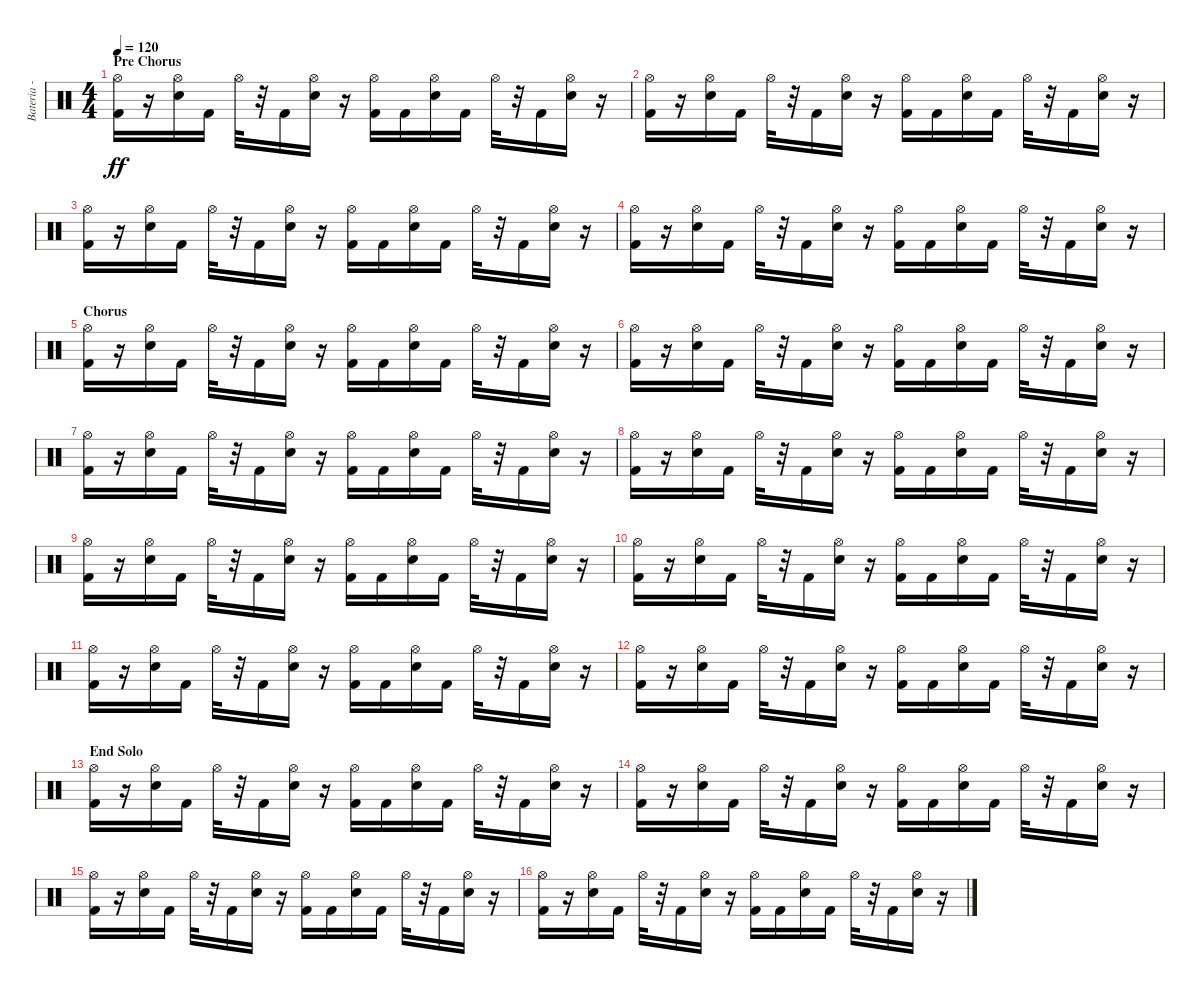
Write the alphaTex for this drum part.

\track ("Bateria - Marky" "Bateria - ") {instrument percussion}
\staff {score}
\articulation defaults
\ts (4 4)
\section ("" "Pre Chorus")
\tempo 120
\clef neutral
\ks c
("Kick (hit) 2" "Hi-Hat (open)").16{dy ff} r.16 ("Electric Snare (hit)" "Hi-Hat (open)").16 "Kick (hit) 2".16 "Hi-Hat (open)".32 r.32 "Kick (hit) 2".16 ("Electric Snare (hit)" "Hi-Hat (open)").16 r.16 ("Kick (hit) 2" "Hi-Hat (open)").16 "Kick (hit) 2".16 ("Electric Snare (hit)" "Hi-Hat (open)").16 "Kick (hit) 2".16 "Hi-Hat (open)".32 r.32 "Kick (hit) 2".16 ("Electric Snare (hit)" "Hi-Hat (open)").16 r.16 |
("Kick (hit) 2" "Hi-Hat (open)").16 r.16 ("Electric Snare (hit)" "Hi-Hat (open)").16 "Kick (hit) 2".16 "Hi-Hat (open)".32 r.32 "Kick (hit) 2".16 ("Electric Snare (hit)" "Hi-Hat (open)").16 r.16 ("Kick (hit) 2" "Hi-Hat (open)").16 "Kick (hit) 2".16 ("Electric Snare (hit)" "Hi-Hat (open)").16 "Kick (hit) 2".16 "Hi-Hat (open)".32 r.32 "Kick (hit) 2".16 ("Electric Snare (hit)" "Hi-Hat (open)").16 r.16 |
("Kick (hit) 2" "Hi-Hat (open)").16 r.16 ("Electric Snare (hit)" "Hi-Hat (open)").16 "Kick (hit) 2".16 "Hi-Hat (open)".32 r.32 "Kick (hit) 2".16 ("Electric Snare (hit)" "Hi-Hat (open)").16 r.16 ("Kick (hit) 2" "Hi-Hat (open)").16 "Kick (hit) 2".16 ("Electric Snare (hit)" "Hi-Hat (open)").16 "Kick (hit) 2".16 "Hi-Hat (open)".32 r.32 "Kick (hit) 2".16 ("Electric Snare (hit)" "Hi-Hat (open)").16 r.16 |
("Kick (hit) 2" "Hi-Hat (open)").16 r.16 ("Electric Snare (hit)" "Hi-Hat (open)").16 "Kick (hit) 2".16 "Hi-Hat (open)".32 r.32 "Kick (hit) 2".16 ("Electric Snare (hit)" "Hi-Hat (open)").16 r.16 ("Kick (hit) 2" "Hi-Hat (open)").16 "Kick (hit) 2".16 ("Electric Snare (hit)" "Hi-Hat (open)").16 "Kick (hit) 2".16 "Hi-Hat (open)".32 r.32 "Kick (hit) 2".16 ("Electric Snare (hit)" "Hi-Hat (open)").16 r.16 |
\section ("" "Chorus")
("Kick (hit) 2" "Hi-Hat (open)").16 r.16 ("Electric Snare (hit)" "Hi-Hat (open)").16 "Kick (hit) 2".16 "Hi-Hat (open)".32 r.32 "Kick (hit) 2".16 ("Electric Snare (hit)" "Hi-Hat (open)").16 r.16 ("Kick (hit) 2" "Hi-Hat (open)").16 "Kick (hit) 2".16 ("Electric Snare (hit)" "Hi-Hat (open)").16 "Kick (hit) 2".16 "Hi-Hat (open)".32 r.32 "Kick (hit) 2".16 ("Electric Snare (hit)" "Hi-Hat (open)").16 r.16 |
("Kick (hit) 2" "Hi-Hat (open)").16 r.16 ("Electric Snare (hit)" "Hi-Hat (open)").16 "Kick (hit) 2".16 "Hi-Hat (open)".32 r.32 "Kick (hit) 2".16 ("Electric Snare (hit)" "Hi-Hat (open)").16 r.16 ("Kick (hit) 2" "Hi-Hat (open)").16 "Kick (hit) 2".16 ("Electric Snare (hit)" "Hi-Hat (open)").16 "Kick (hit) 2".16 "Hi-Hat (open)".32 r.32 "Kick (hit) 2".16 ("Electric Snare (hit)" "Hi-Hat (open)").16 r.16 |
("Kick (hit) 2" "Hi-Hat (open)").16 r.16 ("Electric Snare (hit)" "Hi-Hat (open)").16 "Kick (hit) 2".16 "Hi-Hat (open)".32 r.32 "Kick (hit) 2".16 ("Electric Snare (hit)" "Hi-Hat (open)").16 r.16 ("Kick (hit) 2" "Hi-Hat (open)").16 "Kick (hit) 2".16 ("Electric Snare (hit)" "Hi-Hat (open)").16 "Kick (hit) 2".16 "Hi-Hat (open)".32 r.32 "Kick (hit) 2".16 ("Electric Snare (hit)" "Hi-Hat (open)").16 r.16 |
("Kick (hit) 2" "Hi-Hat (open)").16 r.16 ("Electric Snare (hit)" "Hi-Hat (open)").16 "Kick (hit) 2".16 "Hi-Hat (open)".32 r.32 "Kick (hit) 2".16 ("Electric Snare (hit)" "Hi-Hat (open)").16 r.16 ("Kick (hit) 2" "Hi-Hat (open)").16 "Kick (hit) 2".16 ("Electric Snare (hit)" "Hi-Hat (open)").16 "Kick (hit) 2".16 "Hi-Hat (open)".32 r.32 "Kick (hit) 2".16 ("Electric Snare (hit)" "Hi-Hat (open)").16 r.16 |
("Kick (hit) 2" "Hi-Hat (open)").16 r.16 ("Electric Snare (hit)" "Hi-Hat (open)").16 "Kick (hit) 2".16 "Hi-Hat (open)".32 r.32 "Kick (hit) 2".16 ("Electric Snare (hit)" "Hi-Hat (open)").16 r.16 ("Kick (hit) 2" "Hi-Hat (open)").16 "Kick (hit) 2".16 ("Electric Snare (hit)" "Hi-Hat (open)").16 "Kick (hit) 2".16 "Hi-Hat (open)".32 r.32 "Kick (hit) 2".16 ("Electric Snare (hit)" "Hi-Hat (open)").16 r.16 |
("Kick (hit) 2" "Hi-Hat (open)").16 r.16 ("Electric Snare (hit)" "Hi-Hat (open)").16 "Kick (hit) 2".16 "Hi-Hat (open)".32 r.32 "Kick (hit) 2".16 ("Electric Snare (hit)" "Hi-Hat (open)").16 r.16 ("Kick (hit) 2" "Hi-Hat (open)").16 "Kick (hit) 2".16 ("Electric Snare (hit)" "Hi-Hat (open)").16 "Kick (hit) 2".16 "Hi-Hat (open)".32 r.32 "Kick (hit) 2".16 ("Electric Snare (hit)" "Hi-Hat (open)").16 r.16 |
("Kick (hit) 2" "Hi-Hat (open)").16 r.16 ("Electric Snare (hit)" "Hi-Hat (open)").16 "Kick (hit) 2".16 "Hi-Hat (open)".32 r.32 "Kick (hit) 2".16 ("Electric Snare (hit)" "Hi-Hat (open)").16 r.16 ("Kick (hit) 2" "Hi-Hat (open)").16 "Kick (hit) 2".16 ("Electric Snare (hit)" "Hi-Hat (open)").16 "Kick (hit) 2".16 "Hi-Hat (open)".32 r.32 "Kick (hit) 2".16 ("Electric Snare (hit)" "Hi-Hat (open)").16 r.16 |
("Kick (hit) 2" "Hi-Hat (open)").16 r.16 ("Electric Snare (hit)" "Hi-Hat (open)").16 "Kick (hit) 2".16 "Hi-Hat (open)".32 r.32 "Kick (hit) 2".16 ("Electric Snare (hit)" "Hi-Hat (open)").16 r.16 ("Kick (hit) 2" "Hi-Hat (open)").16 "Kick (hit) 2".16 ("Electric Snare (hit)" "Hi-Hat (open)").16 "Kick (hit) 2".16 "Hi-Hat (open)".32 r.32 "Kick (hit) 2".16 ("Electric Snare (hit)" "Hi-Hat (open)").16 r.16 |
\section ("" "End Solo")
("Kick (hit) 2" "Hi-Hat (open)").16 r.16 ("Electric Snare (hit)" "Hi-Hat (open)").16 "Kick (hit) 2".16 "Hi-Hat (open)".32 r.32 "Kick (hit) 2".16 ("Electric Snare (hit)" "Hi-Hat (open)").16 r.16 ("Kick (hit) 2" "Hi-Hat (open)").16 "Kick (hit) 2".16 ("Electric Snare (hit)" "Hi-Hat (open)").16 "Kick (hit) 2".16 "Hi-Hat (open)".32 r.32 "Kick (hit) 2".16 ("Electric Snare (hit)" "Hi-Hat (open)").16 r.16 |
("Kick (hit) 2" "Hi-Hat (open)").16 r.16 ("Electric Snare (hit)" "Hi-Hat (open)").16 "Kick (hit) 2".16 "Hi-Hat (open)".32 r.32 "Kick (hit) 2".16 ("Electric Snare (hit)" "Hi-Hat (open)").16 r.16 ("Kick (hit) 2" "Hi-Hat (open)").16 "Kick (hit) 2".16 ("Electric Snare (hit)" "Hi-Hat (open)").16 "Kick (hit) 2".16 "Hi-Hat (open)".32 r.32 "Kick (hit) 2".16 ("Electric Snare (hit)" "Hi-Hat (open)").16 r.16 |
("Kick (hit) 2" "Hi-Hat (open)").16 r.16 ("Electric Snare (hit)" "Hi-Hat (open)").16 "Kick (hit) 2".16 "Hi-Hat (open)".32 r.32 "Kick (hit) 2".16 ("Electric Snare (hit)" "Hi-Hat (open)").16 r.16 ("Kick (hit) 2" "Hi-Hat (open)").16 "Kick (hit) 2".16 ("Electric Snare (hit)" "Hi-Hat (open)").16 "Kick (hit) 2".16 "Hi-Hat (open)".32 r.32 "Kick (hit) 2".16 ("Electric Snare (hit)" "Hi-Hat (open)").16 r.16 |
("Kick (hit) 2" "Hi-Hat (open)").16 r.16 ("Electric Snare (hit)" "Hi-Hat (open)").16 "Kick (hit) 2".16 "Hi-Hat (open)".32 r.32 "Kick (hit) 2".16 ("Electric Snare (hit)" "Hi-Hat (open)").16 r.16 ("Kick (hit) 2" "Hi-Hat (open)").16 "Kick (hit) 2".16 ("Electric Snare (hit)" "Hi-Hat (open)").16 "Kick (hit) 2".16 "Hi-Hat (open)".32 r.32 "Kick (hit) 2".16 ("Electric Snare (hit)" "Hi-Hat (open)").16 r.16
